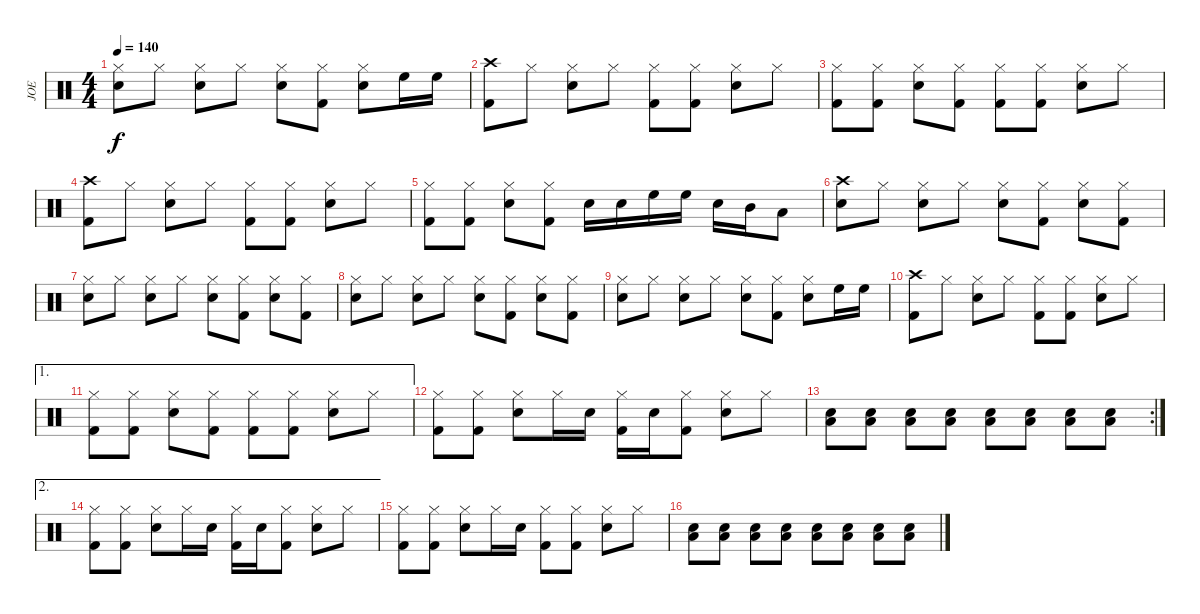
\track ("JOE" "JOE") {instrument percussion}
\staff {score}
\articulation defaults
\ts (4 4)
\tempo 140
\clef neutral
\ks c
("Hi-Hat (closed)" "Snare (hit) 2").8{dy f} "Hi-Hat (closed)".8 ("Hi-Hat (closed)" "Snare (hit) 2").8 "Hi-Hat (closed)".8 ("Hi-Hat (closed)" "Snare (hit) 2").8 ("Hi-Hat (closed)" "Kick (hit) 2").8 ("Hi-Hat (closed)" "Snare (hit) 2").8 "High Floor Tom (hit)".16 "High Floor Tom (hit)".16 |
("Crash high (hit)" "Kick (hit) 2").8 "Hi-Hat (closed)".8 ("Hi-Hat (closed)" "Snare (hit) 2").8 "Hi-Hat (closed)".8 ("Hi-Hat (closed)" "Kick (hit) 2").8 ("Hi-Hat (closed)" "Kick (hit) 2").8 ("Hi-Hat (closed)" "Snare (hit) 2").8 "Hi-Hat (closed)".8 |
("Hi-Hat (closed)" "Kick (hit) 2").8 ("Hi-Hat (closed)" "Kick (hit) 2").8 ("Hi-Hat (closed)" "Snare (hit) 2").8 ("Hi-Hat (closed)" "Kick (hit) 2").8 ("Hi-Hat (closed)" "Kick (hit) 2").8 ("Hi-Hat (closed)" "Kick (hit) 2").8 ("Hi-Hat (closed)" "Snare (hit) 2").8 "Hi-Hat (closed)".8 |
("Crash high (hit)" "Kick (hit) 2").8 "Hi-Hat (closed)".8 ("Hi-Hat (closed)" "Snare (hit) 2").8 "Hi-Hat (closed)".8 ("Hi-Hat (closed)" "Kick (hit) 2").8 ("Hi-Hat (closed)" "Kick (hit) 2").8 ("Hi-Hat (closed)" "Snare (hit) 2").8 "Hi-Hat (closed)".8 |
("Hi-Hat (closed)" "Kick (hit) 2").8 ("Hi-Hat (closed)" "Kick (hit) 2").8 ("Hi-Hat (closed)" "Snare (hit) 2").8 ("Hi-Hat (closed)" "Kick (hit) 2").8 "Snare (hit) 2".16 "Snare (hit) 2".16 "High Floor Tom (hit)".16 "High Floor Tom (hit)".16 "Snare (hit) 2".16 "Mid Tom (hit)".16 "Low Tom (hit)".8 |
("Crash high (hit)" "Snare (hit) 2").8 "Hi-Hat (closed)".8 ("Hi-Hat (closed)" "Snare (hit) 2").8 "Hi-Hat (closed)".8 ("Hi-Hat (closed)" "Snare (hit) 2").8 ("Hi-Hat (closed)" "Kick (hit) 2").8 ("Hi-Hat (closed)" "Snare (hit) 2").8 ("Hi-Hat (closed)" "Kick (hit) 2").8 |
("Hi-Hat (closed)" "Snare (hit) 2").8 "Hi-Hat (closed)".8 ("Hi-Hat (closed)" "Snare (hit) 2").8 "Hi-Hat (closed)".8 ("Hi-Hat (closed)" "Snare (hit) 2").8 ("Hi-Hat (closed)" "Kick (hit) 2").8 ("Hi-Hat (closed)" "Snare (hit) 2").8 ("Hi-Hat (closed)" "Kick (hit) 2").8 |
("Hi-Hat (closed)" "Snare (hit) 2").8 "Hi-Hat (closed)".8 ("Hi-Hat (closed)" "Snare (hit) 2").8 "Hi-Hat (closed)".8 ("Hi-Hat (closed)" "Snare (hit) 2").8 ("Hi-Hat (closed)" "Kick (hit) 2").8 ("Hi-Hat (closed)" "Snare (hit) 2").8 ("Hi-Hat (closed)" "Kick (hit) 2").8 |
("Hi-Hat (closed)" "Snare (hit) 2").8 "Hi-Hat (closed)".8 ("Hi-Hat (closed)" "Snare (hit) 2").8 "Hi-Hat (closed)".8 ("Hi-Hat (closed)" "Snare (hit) 2").8 ("Hi-Hat (closed)" "Kick (hit) 2").8 ("Hi-Hat (closed)" "Snare (hit) 2").8 "High Floor Tom (hit)".16 "High Floor Tom (hit)".16 |
("Crash high (hit)" "Kick (hit) 2").8 "Hi-Hat (closed)".8 ("Hi-Hat (closed)" "Snare (hit) 2").8 "Hi-Hat (closed)".8 ("Hi-Hat (closed)" "Kick (hit) 2").8 ("Hi-Hat (closed)" "Kick (hit) 2").8 ("Hi-Hat (closed)" "Snare (hit) 2").8 "Hi-Hat (closed)".8 |
\ae 1
("Hi-Hat (closed)" "Kick (hit) 2").8 ("Hi-Hat (closed)" "Kick (hit) 2").8 ("Hi-Hat (closed)" "Snare (hit) 2").8 ("Hi-Hat (closed)" "Kick (hit) 2").8 ("Hi-Hat (closed)" "Kick (hit) 2").8 ("Hi-Hat (closed)" "Kick (hit) 2").8 ("Hi-Hat (closed)" "Snare (hit) 2").8 "Hi-Hat (closed)".8 |
("Hi-Hat (closed)" "Kick (hit) 2").8 ("Hi-Hat (closed)" "Kick (hit) 2").8 ("Hi-Hat (closed)" "Snare (hit) 2").8 "Hi-Hat (closed)".16 "Snare (hit) 2".16 ("Hi-Hat (closed)" "Kick (hit) 2").16 "Snare (hit) 2".16 ("Hi-Hat (closed)" "Kick (hit) 2").8 ("Hi-Hat (closed)" "Snare (hit) 2").8 "Hi-Hat (closed)".8 |
\rc 2
("Low Floor Tom (hit)" "Snare (hit) 2").8 ("Low Floor Tom (hit)" "Snare (hit) 2").8 ("Low Floor Tom (hit)" "Snare (hit) 2").8 ("Low Floor Tom (hit)" "Snare (hit) 2").8 ("Low Floor Tom (hit)" "Snare (hit) 2").8 ("Low Floor Tom (hit)" "Snare (hit) 2").8 ("Low Floor Tom (hit)" "Snare (hit) 2").8 ("Low Floor Tom (hit)" "Snare (hit) 2").8 |
\ae 2
("Hi-Hat (closed)" "Kick (hit) 2").8 ("Hi-Hat (closed)" "Kick (hit) 2").8 ("Hi-Hat (closed)" "Snare (hit) 2").8 "Hi-Hat (closed)".16 "Snare (hit) 2".16 ("Hi-Hat (closed)" "Kick (hit) 2").16 "Snare (hit) 2".16 ("Hi-Hat (closed)" "Kick (hit) 2").8 ("Hi-Hat (closed)" "Snare (hit) 2").8 "Hi-Hat (closed)".8 |
("Hi-Hat (closed)" "Kick (hit) 2").8 ("Hi-Hat (closed)" "Kick (hit) 2").8 ("Hi-Hat (closed)" "Snare (hit) 2").8 "Hi-Hat (closed)".16 "Snare (hit) 2".16 ("Hi-Hat (closed)" "Kick (hit) 2").8 ("Hi-Hat (closed)" "Kick (hit) 2").8 ("Hi-Hat (closed)" "Snare (hit) 2").8 "Hi-Hat (closed)".8 |
\ks aminor
("Snare (hit) 2" "Low Floor Tom (hit)").8 ("Snare (hit) 2" "Low Floor Tom (hit)").8 ("Snare (hit) 2" "Low Floor Tom (hit)").8 ("Snare (hit) 2" "Low Floor Tom (hit)").8 ("Snare (hit) 2" "Low Floor Tom (hit)").8 ("Snare (hit) 2" "Low Floor Tom (hit)").8 ("Snare (hit) 2" "Low Floor Tom (hit)").8 ("Snare (hit) 2" "Low Floor Tom (hit)").8
